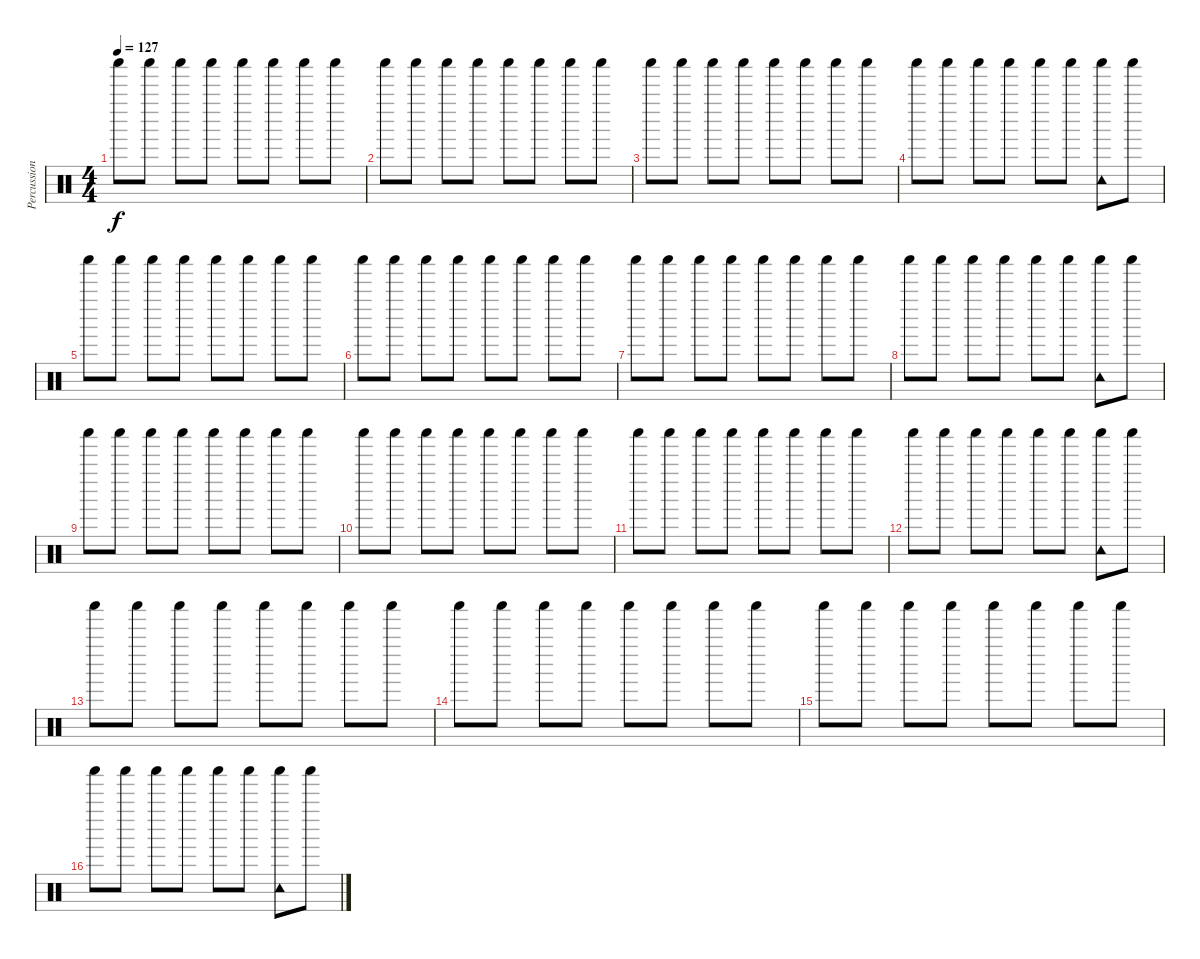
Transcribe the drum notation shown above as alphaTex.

\track ("Percussion II" "Percussion") {instrument percussion}
\staff {score}
\articulation defaults
\ts (4 4)
\tempo 127
\clef neutral
\ks c "Shaker (hit)".8{dy f} "Shaker (hit)".8 "Shaker (hit)".8 "Shaker (hit)".8 "Shaker (hit)".8 "Shaker (hit)".8 "Shaker (hit)".8 "Shaker (hit)".8
|
"Shaker (hit)".8 "Shaker (hit)".8 "Shaker (hit)".8 "Shaker (hit)".8 "Shaker (hit)".8 "Shaker (hit)".8 "Shaker (hit)".8 "Shaker (hit)".8 |
"Shaker (hit)".8 "Shaker (hit)".8 "Shaker (hit)".8 "Shaker (hit)".8 "Shaker (hit)".8 "Shaker (hit)".8 "Shaker (hit)".8 "Shaker (hit)".8 |
"Shaker (hit)".8 "Shaker (hit)".8 "Shaker (hit)".8 "Shaker (hit)".8 "Shaker (hit)".8 "Shaker (hit)".8 ("Shaker (hit)" "Tambourine (hit)").8 "Shaker (hit)".8 |
"Shaker (hit)".8 "Shaker (hit)".8 "Shaker (hit)".8 "Shaker (hit)".8 "Shaker (hit)".8 "Shaker (hit)".8 "Shaker (hit)".8 "Shaker (hit)".8 |
"Shaker (hit)".8 "Shaker (hit)".8 "Shaker (hit)".8 "Shaker (hit)".8 "Shaker (hit)".8 "Shaker (hit)".8 "Shaker (hit)".8 "Shaker (hit)".8 |
"Shaker (hit)".8 "Shaker (hit)".8 "Shaker (hit)".8 "Shaker (hit)".8 "Shaker (hit)".8 "Shaker (hit)".8 "Shaker (hit)".8 "Shaker (hit)".8 |
"Shaker (hit)".8 "Shaker (hit)".8 "Shaker (hit)".8 "Shaker (hit)".8 "Shaker (hit)".8 "Shaker (hit)".8 ("Shaker (hit)" "Tambourine (hit)").8 "Shaker (hit)".8 |
"Shaker (hit)".8 "Shaker (hit)".8 "Shaker (hit)".8 "Shaker (hit)".8 "Shaker (hit)".8 "Shaker (hit)".8 "Shaker (hit)".8 "Shaker (hit)".8 |
"Shaker (hit)".8 "Shaker (hit)".8 "Shaker (hit)".8 "Shaker (hit)".8 "Shaker (hit)".8 "Shaker (hit)".8 "Shaker (hit)".8 "Shaker (hit)".8 |
"Shaker (hit)".8 "Shaker (hit)".8 "Shaker (hit)".8 "Shaker (hit)".8 "Shaker (hit)".8 "Shaker (hit)".8 "Shaker (hit)".8 "Shaker (hit)".8 |
"Shaker (hit)".8 "Shaker (hit)".8 "Shaker (hit)".8 "Shaker (hit)".8 "Shaker (hit)".8 "Shaker (hit)".8 ("Shaker (hit)" "Tambourine (hit)").8 "Shaker (hit)".8 |
"Shaker (hit)".8 "Shaker (hit)".8 "Shaker (hit)".8 "Shaker (hit)".8 "Shaker (hit)".8 "Shaker (hit)".8 "Shaker (hit)".8 "Shaker (hit)".8 |
"Shaker (hit)".8 "Shaker (hit)".8 "Shaker (hit)".8 "Shaker (hit)".8 "Shaker (hit)".8 "Shaker (hit)".8 "Shaker (hit)".8 "Shaker (hit)".8 |
"Shaker (hit)".8 "Shaker (hit)".8 "Shaker (hit)".8 "Shaker (hit)".8 "Shaker (hit)".8 "Shaker (hit)".8 "Shaker (hit)".8 "Shaker (hit)".8 |
"Shaker (hit)".8 "Shaker (hit)".8 "Shaker (hit)".8 "Shaker (hit)".8 "Shaker (hit)".8 "Shaker (hit)".8 ("Shaker (hit)" "Tambourine (hit)").8 "Shaker (hit)".8
